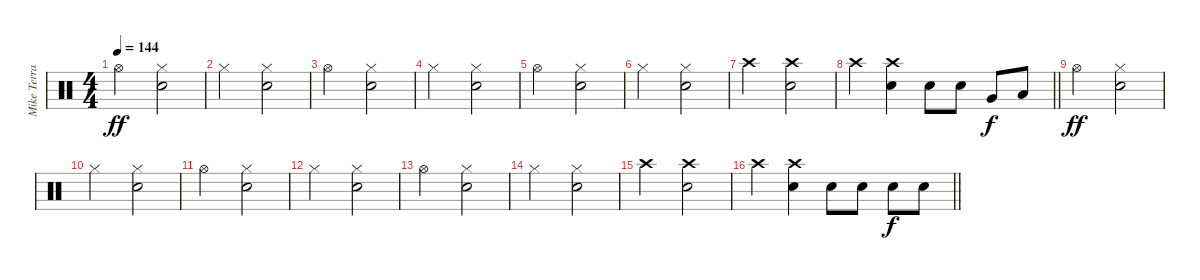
\track ("Mike Terrana" "Mike Terra") {instrument percussion}
\staff {score}
\articulation defaults
\ts (4 4)
\tempo 144
\clef neutral
\ks c "Hi-Hat (open)".2{dy ff}
("Snare (hit) 2" "Hi-Hat (closed)").2 |
"Hi-Hat (closed)".2 ("Snare (hit) 2" "Hi-Hat (closed)").2 |
"Hi-Hat (open)".2 ("Snare (hit) 2" "Hi-Hat (closed)").2 |
"Hi-Hat (closed)".2 ("Snare (hit) 2" "Hi-Hat (closed)").2 |
"Hi-Hat (open)".2 ("Snare (hit) 2" "Hi-Hat (closed)").2 |
"Hi-Hat (closed)".2 ("Snare (hit) 2" "Hi-Hat (closed)").2 |
"Crash high (hit)".2 ("Snare (hit) 2" "Crash high (hit)").2 |
\barLineRight lightlight "Crash high (hit)".4
("Snare (hit) 2" "Crash high (hit)").4 "Snare (hit) 2".8 "Snare (hit) 2".8 "Very Low Tom (hit)".8{dy f} "Low Floor Tom (hit)".8 |
"Hi-Hat (open)".2{dy ff} ("Snare (hit) 2" "Hi-Hat (closed)").2 |
"Hi-Hat (closed)".2 ("Snare (hit) 2" "Hi-Hat (closed)").2 |
"Hi-Hat (open)".2 ("Snare (hit) 2" "Hi-Hat (closed)").2 |
"Hi-Hat (closed)".2 ("Snare (hit) 2" "Hi-Hat (closed)").2 |
"Hi-Hat (open)".2 ("Snare (hit) 2" "Hi-Hat (closed)").2 |
"Hi-Hat (closed)".2 ("Snare (hit) 2" "Hi-Hat (closed)").2 |
"Crash high (hit)".2 ("Snare (hit) 2" "Crash high (hit)").2 |
\barLineRight lightlight "Crash high (hit)".4
("Snare (hit) 2" "Crash high (hit)").4 "Snare (hit) 2".8 "Snare (hit) 2".8 "Snare (hit) 2".8{dy f} "Snare (hit) 2".8
